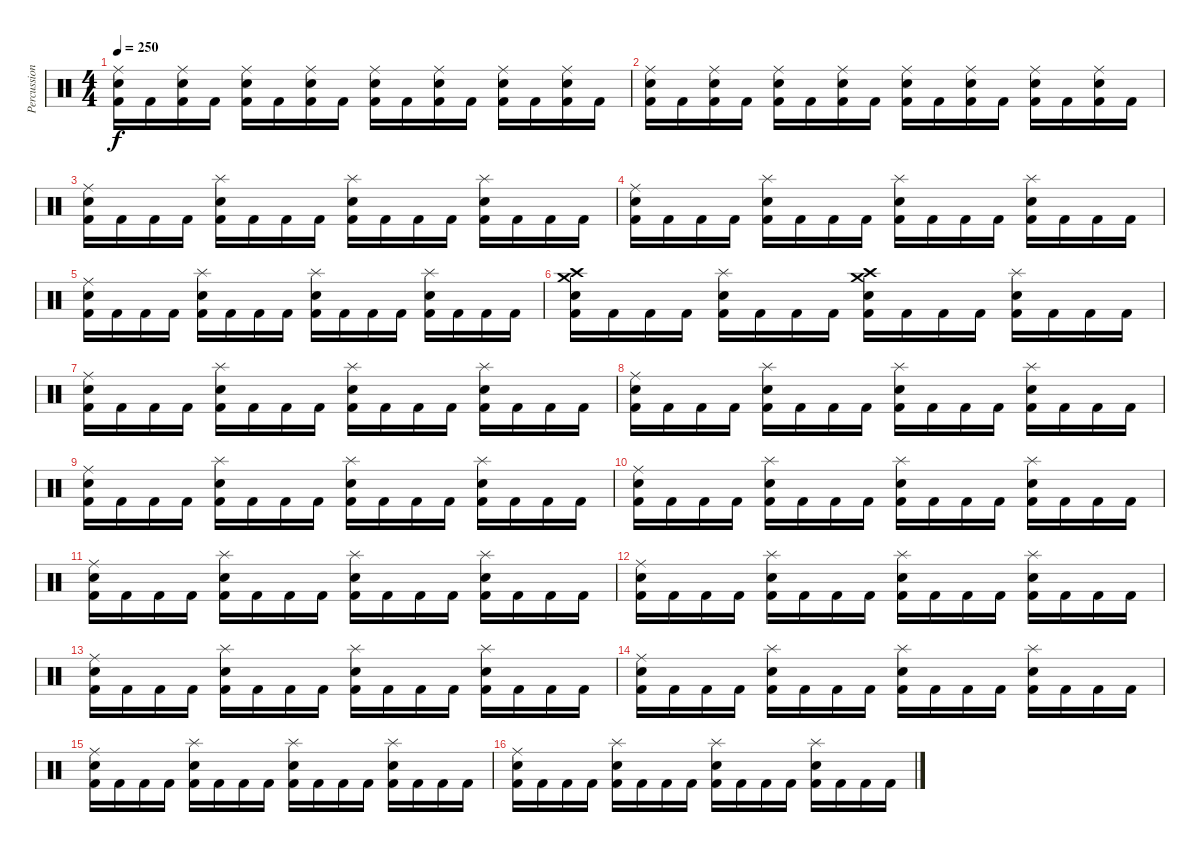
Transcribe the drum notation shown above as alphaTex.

\track ("Percussion" "Percussion") {instrument percussion}
\staff {score}
\articulation defaults
\ts (4 4)
\tempo 250
\clef neutral
\ks c
("Ride (middle)" "Electric Snare (hit)" "Kick (hit) 2").16{dy f} "Kick (hit) 2".16 ("Ride (middle)" "Electric Snare (hit)" "Kick (hit) 2").16 "Kick (hit) 2".16 ("Ride (middle)" "Electric Snare (hit)" "Kick (hit) 2").16 "Kick (hit) 2".16 ("Ride (middle)" "Electric Snare (hit)" "Kick (hit) 2").16 "Kick (hit) 2".16 ("Ride (middle)" "Electric Snare (hit)" "Kick (hit) 2").16 "Kick (hit) 2".16 ("Ride (middle)" "Electric Snare (hit)" "Kick (hit) 2").16 "Kick (hit) 2".16 ("Ride (middle)" "Electric Snare (hit)" "Kick (hit) 2").16 "Kick (hit) 2".16 ("Ride (middle)" "Electric Snare (hit)" "Kick (hit) 2").16 "Kick (hit) 2".16 |
("Ride (middle)" "Electric Snare (hit)" "Kick (hit) 2").16 "Kick (hit) 2".16 ("Ride (middle)" "Electric Snare (hit)" "Kick (hit) 2").16 "Kick (hit) 2".16 ("Ride (middle)" "Electric Snare (hit)" "Kick (hit) 2").16 "Kick (hit) 2".16 ("Ride (middle)" "Electric Snare (hit)" "Kick (hit) 2").16 "Kick (hit) 2".16 ("Ride (middle)" "Electric Snare (hit)" "Kick (hit) 2").16 "Kick (hit) 2".16 ("Ride (middle)" "Electric Snare (hit)" "Kick (hit) 2").16 "Kick (hit) 2".16 ("Ride (middle)" "Electric Snare (hit)" "Kick (hit) 2").16 "Kick (hit) 2".16 ("Ride (middle)" "Electric Snare (hit)" "Kick (hit) 2").16 "Kick (hit) 2".16 |
("Ride (middle)" "Electric Snare (hit)" "Kick (hit) 2").16 "Kick (hit) 2".16 "Kick (hit) 2".16 "Kick (hit) 2".16 ("Splash (hit)" "Electric Snare (hit)" "Kick (hit) 2").16 "Kick (hit) 2".16 "Kick (hit) 2".16 "Kick (hit) 2".16 ("Splash (hit)" "Electric Snare (hit)" "Kick (hit) 2").16 "Kick (hit) 2".16 "Kick (hit) 2".16 "Kick (hit) 2".16 ("Splash (hit)" "Electric Snare (hit)" "Kick (hit) 2").16 "Kick (hit) 2".16 "Kick (hit) 2".16 "Kick (hit) 2".16 |
("Ride (middle)" "Electric Snare (hit)" "Kick (hit) 2").16 "Kick (hit) 2".16 "Kick (hit) 2".16 "Kick (hit) 2".16 ("Splash (hit)" "Electric Snare (hit)" "Kick (hit) 2").16 "Kick (hit) 2".16 "Kick (hit) 2".16 "Kick (hit) 2".16 ("Splash (hit)" "Electric Snare (hit)" "Kick (hit) 2").16 "Kick (hit) 2".16 "Kick (hit) 2".16 "Kick (hit) 2".16 ("Splash (hit)" "Electric Snare (hit)" "Kick (hit) 2").16 "Kick (hit) 2".16 "Kick (hit) 2".16 "Kick (hit) 2".16 |
("Ride (middle)" "Electric Snare (hit)" "Kick (hit) 2").16 "Kick (hit) 2".16 "Kick (hit) 2".16 "Kick (hit) 2".16 ("Splash (hit)" "Electric Snare (hit)" "Kick (hit) 2").16 "Kick (hit) 2".16 "Kick (hit) 2".16 "Kick (hit) 2".16 ("Splash (hit)" "Electric Snare (hit)" "Kick (hit) 2").16 "Kick (hit) 2".16 "Kick (hit) 2".16 "Kick (hit) 2".16 ("Splash (hit)" "Electric Snare (hit)" "Kick (hit) 2").16 "Kick (hit) 2".16 "Kick (hit) 2".16 "Kick (hit) 2".16 |
("Crash medium (hit)" "Crash high (hit)" "Electric Snare (hit)" "Kick (hit) 2").16 "Kick (hit) 2".16 "Kick (hit) 2".16 "Kick (hit) 2".16 ("Splash (hit)" "Electric Snare (hit)" "Kick (hit) 2").16 "Kick (hit) 2".16 "Kick (hit) 2".16 "Kick (hit) 2".16 ("Crash medium (hit)" "Crash high (hit)" "Electric Snare (hit)" "Kick (hit) 2").16 "Kick (hit) 2".16 "Kick (hit) 2".16 "Kick (hit) 2".16 ("Splash (hit)" "Electric Snare (hit)" "Kick (hit) 2").16 "Kick (hit) 2".16 "Kick (hit) 2".16 "Kick (hit) 2".16 |
("Ride (middle)" "Electric Snare (hit)" "Kick (hit) 2").16 "Kick (hit) 2".16 "Kick (hit) 2".16 "Kick (hit) 2".16 ("Splash (hit)" "Electric Snare (hit)" "Kick (hit) 2").16 "Kick (hit) 2".16 "Kick (hit) 2".16 "Kick (hit) 2".16 ("Splash (hit)" "Electric Snare (hit)" "Kick (hit) 2").16 "Kick (hit) 2".16 "Kick (hit) 2".16 "Kick (hit) 2".16 ("Splash (hit)" "Electric Snare (hit)" "Kick (hit) 2").16 "Kick (hit) 2".16 "Kick (hit) 2".16 "Kick (hit) 2".16 |
("Ride (middle)" "Electric Snare (hit)" "Kick (hit) 2").16 "Kick (hit) 2".16 "Kick (hit) 2".16 "Kick (hit) 2".16 ("Splash (hit)" "Electric Snare (hit)" "Kick (hit) 2").16 "Kick (hit) 2".16 "Kick (hit) 2".16 "Kick (hit) 2".16 ("Splash (hit)" "Electric Snare (hit)" "Kick (hit) 2").16 "Kick (hit) 2".16 "Kick (hit) 2".16 "Kick (hit) 2".16 ("Splash (hit)" "Electric Snare (hit)" "Kick (hit) 2").16 "Kick (hit) 2".16 "Kick (hit) 2".16 "Kick (hit) 2".16 |
("Ride (middle)" "Electric Snare (hit)" "Kick (hit) 2").16 "Kick (hit) 2".16 "Kick (hit) 2".16 "Kick (hit) 2".16 ("Splash (hit)" "Electric Snare (hit)" "Kick (hit) 2").16 "Kick (hit) 2".16 "Kick (hit) 2".16 "Kick (hit) 2".16 ("Splash (hit)" "Electric Snare (hit)" "Kick (hit) 2").16 "Kick (hit) 2".16 "Kick (hit) 2".16 "Kick (hit) 2".16 ("Splash (hit)" "Electric Snare (hit)" "Kick (hit) 2").16 "Kick (hit) 2".16 "Kick (hit) 2".16 "Kick (hit) 2".16 |
("Ride (middle)" "Electric Snare (hit)" "Kick (hit) 2").16 "Kick (hit) 2".16 "Kick (hit) 2".16 "Kick (hit) 2".16 ("Splash (hit)" "Electric Snare (hit)" "Kick (hit) 2").16 "Kick (hit) 2".16 "Kick (hit) 2".16 "Kick (hit) 2".16 ("Splash (hit)" "Electric Snare (hit)" "Kick (hit) 2").16 "Kick (hit) 2".16 "Kick (hit) 2".16 "Kick (hit) 2".16 ("Splash (hit)" "Electric Snare (hit)" "Kick (hit) 2").16 "Kick (hit) 2".16 "Kick (hit) 2".16 "Kick (hit) 2".16 |
("Ride (middle)" "Electric Snare (hit)" "Kick (hit) 2").16 "Kick (hit) 2".16 "Kick (hit) 2".16 "Kick (hit) 2".16 ("Splash (hit)" "Electric Snare (hit)" "Kick (hit) 2").16 "Kick (hit) 2".16 "Kick (hit) 2".16 "Kick (hit) 2".16 ("Splash (hit)" "Electric Snare (hit)" "Kick (hit) 2").16 "Kick (hit) 2".16 "Kick (hit) 2".16 "Kick (hit) 2".16 ("Splash (hit)" "Electric Snare (hit)" "Kick (hit) 2").16 "Kick (hit) 2".16 "Kick (hit) 2".16 "Kick (hit) 2".16 |
("Ride (middle)" "Electric Snare (hit)" "Kick (hit) 2").16 "Kick (hit) 2".16 "Kick (hit) 2".16 "Kick (hit) 2".16 ("Splash (hit)" "Electric Snare (hit)" "Kick (hit) 2").16 "Kick (hit) 2".16 "Kick (hit) 2".16 "Kick (hit) 2".16 ("Splash (hit)" "Electric Snare (hit)" "Kick (hit) 2").16 "Kick (hit) 2".16 "Kick (hit) 2".16 "Kick (hit) 2".16 ("Splash (hit)" "Electric Snare (hit)" "Kick (hit) 2").16 "Kick (hit) 2".16 "Kick (hit) 2".16 "Kick (hit) 2".16 |
("Ride (middle)" "Electric Snare (hit)" "Kick (hit) 2").16 "Kick (hit) 2".16 "Kick (hit) 2".16 "Kick (hit) 2".16 ("Splash (hit)" "Electric Snare (hit)" "Kick (hit) 2").16 "Kick (hit) 2".16 "Kick (hit) 2".16 "Kick (hit) 2".16 ("Splash (hit)" "Electric Snare (hit)" "Kick (hit) 2").16 "Kick (hit) 2".16 "Kick (hit) 2".16 "Kick (hit) 2".16 ("Splash (hit)" "Electric Snare (hit)" "Kick (hit) 2").16 "Kick (hit) 2".16 "Kick (hit) 2".16 "Kick (hit) 2".16 |
("Ride (middle)" "Electric Snare (hit)" "Kick (hit) 2").16 "Kick (hit) 2".16 "Kick (hit) 2".16 "Kick (hit) 2".16 ("Splash (hit)" "Electric Snare (hit)" "Kick (hit) 2").16 "Kick (hit) 2".16 "Kick (hit) 2".16 "Kick (hit) 2".16 ("Splash (hit)" "Electric Snare (hit)" "Kick (hit) 2").16 "Kick (hit) 2".16 "Kick (hit) 2".16 "Kick (hit) 2".16 ("Splash (hit)" "Electric Snare (hit)" "Kick (hit) 2").16 "Kick (hit) 2".16 "Kick (hit) 2".16 "Kick (hit) 2".16 |
("Ride (middle)" "Electric Snare (hit)" "Kick (hit) 2").16 "Kick (hit) 2".16 "Kick (hit) 2".16 "Kick (hit) 2".16 ("Splash (hit)" "Electric Snare (hit)" "Kick (hit) 2").16 "Kick (hit) 2".16 "Kick (hit) 2".16 "Kick (hit) 2".16 ("Splash (hit)" "Electric Snare (hit)" "Kick (hit) 2").16 "Kick (hit) 2".16 "Kick (hit) 2".16 "Kick (hit) 2".16 ("Splash (hit)" "Electric Snare (hit)" "Kick (hit) 2").16 "Kick (hit) 2".16 "Kick (hit) 2".16 "Kick (hit) 2".16 |
("Ride (middle)" "Electric Snare (hit)" "Kick (hit) 2").16 "Kick (hit) 2".16 "Kick (hit) 2".16 "Kick (hit) 2".16 ("Splash (hit)" "Electric Snare (hit)" "Kick (hit) 2").16 "Kick (hit) 2".16 "Kick (hit) 2".16 "Kick (hit) 2".16 ("Splash (hit)" "Electric Snare (hit)" "Kick (hit) 2").16 "Kick (hit) 2".16 "Kick (hit) 2".16 "Kick (hit) 2".16 ("Splash (hit)" "Electric Snare (hit)" "Kick (hit) 2").16 "Kick (hit) 2".16 "Kick (hit) 2".16 "Kick (hit) 2".16
